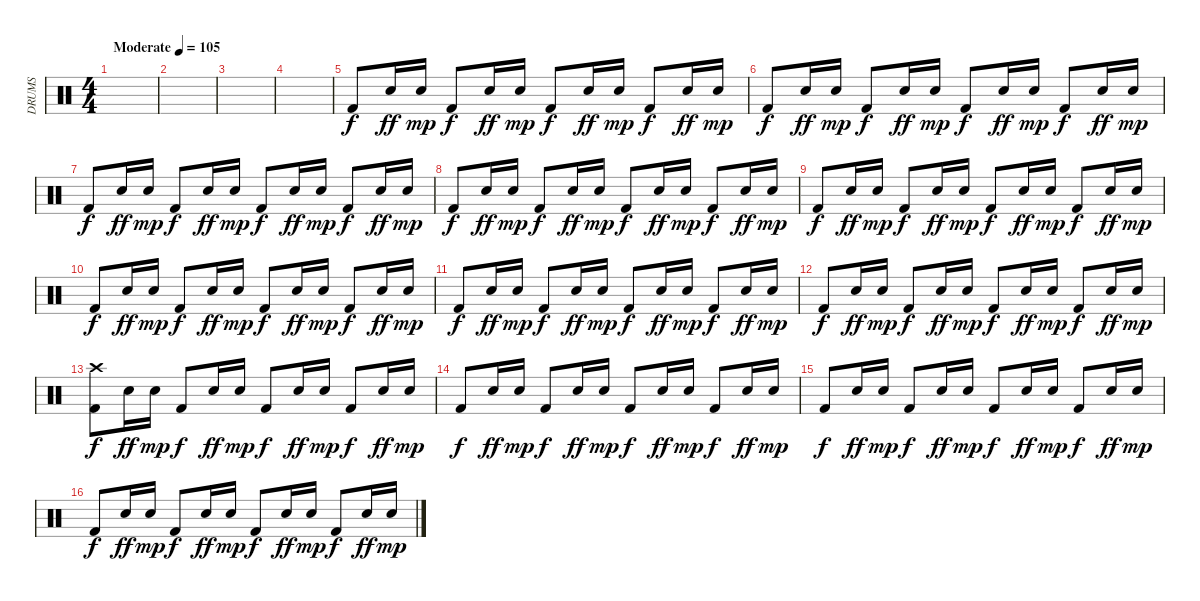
\track ("DRUMS" "DRUMS") {instrument percussion}
\staff {score}
\articulation defaults
\ts (4 4)
\tempo (105 "Moderate")
\clef neutral
\ks c
|
|
|
|
"Kick (hit) 2".8 "Snare (hit) 2".16{dy ff} "Snare (hit) 2".16{dy mp} "Kick (hit) 2".8{dy f} "Snare (hit) 2".16{dy ff} "Snare (hit) 2".16{dy mp} "Kick (hit) 2".8{dy f} "Snare (hit) 2".16{dy ff} "Snare (hit) 2".16{dy mp} "Kick (hit) 2".8{dy f} "Snare (hit) 2".16{dy ff} "Snare (hit) 2".16{dy mp} |
"Kick (hit) 2".8{dy f} "Snare (hit) 2".16{dy ff} "Snare (hit) 2".16{dy mp} "Kick (hit) 2".8{dy f} "Snare (hit) 2".16{dy ff} "Snare (hit) 2".16{dy mp} "Kick (hit) 2".8{dy f} "Snare (hit) 2".16{dy ff} "Snare (hit) 2".16{dy mp} "Kick (hit) 2".8{dy f} "Snare (hit) 2".16{dy ff} "Snare (hit) 2".16{dy mp} |
"Kick (hit) 2".8{dy f} "Snare (hit) 2".16{dy ff} "Snare (hit) 2".16{dy mp} "Kick (hit) 2".8{dy f} "Snare (hit) 2".16{dy ff} "Snare (hit) 2".16{dy mp} "Kick (hit) 2".8{dy f} "Snare (hit) 2".16{dy ff} "Snare (hit) 2".16{dy mp} "Kick (hit) 2".8{dy f} "Snare (hit) 2".16{dy ff} "Snare (hit) 2".16{dy mp} |
"Kick (hit) 2".8{dy f} "Snare (hit) 2".16{dy ff} "Snare (hit) 2".16{dy mp} "Kick (hit) 2".8{dy f} "Snare (hit) 2".16{dy ff} "Snare (hit) 2".16{dy mp} "Kick (hit) 2".8{dy f} "Snare (hit) 2".16{dy ff} "Snare (hit) 2".16{dy mp} "Kick (hit) 2".8{dy f} "Snare (hit) 2".16{dy ff} "Snare (hit) 2".16{dy mp} |
"Kick (hit) 2".8{dy f} "Snare (hit) 2".16{dy ff} "Snare (hit) 2".16{dy mp} "Kick (hit) 2".8{dy f} "Snare (hit) 2".16{dy ff} "Snare (hit) 2".16{dy mp} "Kick (hit) 2".8{dy f} "Snare (hit) 2".16{dy ff} "Snare (hit) 2".16{dy mp} "Kick (hit) 2".8{dy f} "Snare (hit) 2".16{dy ff} "Snare (hit) 2".16{dy mp} |
"Kick (hit) 2".8{dy f} "Snare (hit) 2".16{dy ff} "Snare (hit) 2".16{dy mp} "Kick (hit) 2".8{dy f} "Snare (hit) 2".16{dy ff} "Snare (hit) 2".16{dy mp} "Kick (hit) 2".8{dy f} "Snare (hit) 2".16{dy ff} "Snare (hit) 2".16{dy mp} "Kick (hit) 2".8{dy f} "Snare (hit) 2".16{dy ff} "Snare (hit) 2".16{dy mp} |
"Kick (hit) 2".8{dy f} "Snare (hit) 2".16{dy ff} "Snare (hit) 2".16{dy mp} "Kick (hit) 2".8{dy f} "Snare (hit) 2".16{dy ff} "Snare (hit) 2".16{dy mp} "Kick (hit) 2".8{dy f} "Snare (hit) 2".16{dy ff} "Snare (hit) 2".16{dy mp} "Kick (hit) 2".8{dy f} "Snare (hit) 2".16{dy ff} "Snare (hit) 2".16{dy mp} |
"Kick (hit) 2".8{dy f} "Snare (hit) 2".16{dy ff} "Snare (hit) 2".16{dy mp} "Kick (hit) 2".8{dy f} "Snare (hit) 2".16{dy ff} "Snare (hit) 2".16{dy mp} "Kick (hit) 2".8{dy f} "Snare (hit) 2".16{dy ff} "Snare (hit) 2".16{dy mp} "Kick (hit) 2".8{dy f} "Snare (hit) 2".16{dy ff} "Snare (hit) 2".16{dy mp} |
("Kick (hit) 2" "Crash high (hit)").8{dy f} "Snare (hit) 2".16{dy ff} "Snare (hit) 2".16{dy mp} "Kick (hit) 2".8{dy f} "Snare (hit) 2".16{dy ff} "Snare (hit) 2".16{dy mp} "Kick (hit) 2".8{dy f} "Snare (hit) 2".16{dy ff} "Snare (hit) 2".16{dy mp} "Kick (hit) 2".8{dy f} "Snare (hit) 2".16{dy ff} "Snare (hit) 2".16{dy mp} |
"Kick (hit) 2".8{dy f} "Snare (hit) 2".16{dy ff} "Snare (hit) 2".16{dy mp} "Kick (hit) 2".8{dy f} "Snare (hit) 2".16{dy ff} "Snare (hit) 2".16{dy mp} "Kick (hit) 2".8{dy f} "Snare (hit) 2".16{dy ff} "Snare (hit) 2".16{dy mp} "Kick (hit) 2".8{dy f} "Snare (hit) 2".16{dy ff} "Snare (hit) 2".16{dy mp} |
"Kick (hit) 2".8{dy f} "Snare (hit) 2".16{dy ff} "Snare (hit) 2".16{dy mp} "Kick (hit) 2".8{dy f} "Snare (hit) 2".16{dy ff} "Snare (hit) 2".16{dy mp} "Kick (hit) 2".8{dy f} "Snare (hit) 2".16{dy ff} "Snare (hit) 2".16{dy mp} "Kick (hit) 2".8{dy f} "Snare (hit) 2".16{dy ff} "Snare (hit) 2".16{dy mp} |
"Kick (hit) 2".8{dy f} "Snare (hit) 2".16{dy ff} "Snare (hit) 2".16{dy mp} "Kick (hit) 2".8{dy f} "Snare (hit) 2".16{dy ff} "Snare (hit) 2".16{dy mp} "Kick (hit) 2".8{dy f} "Snare (hit) 2".16{dy ff} "Snare (hit) 2".16{dy mp} "Kick (hit) 2".8{dy f} "Snare (hit) 2".16{dy ff} "Snare (hit) 2".16{dy mp}
